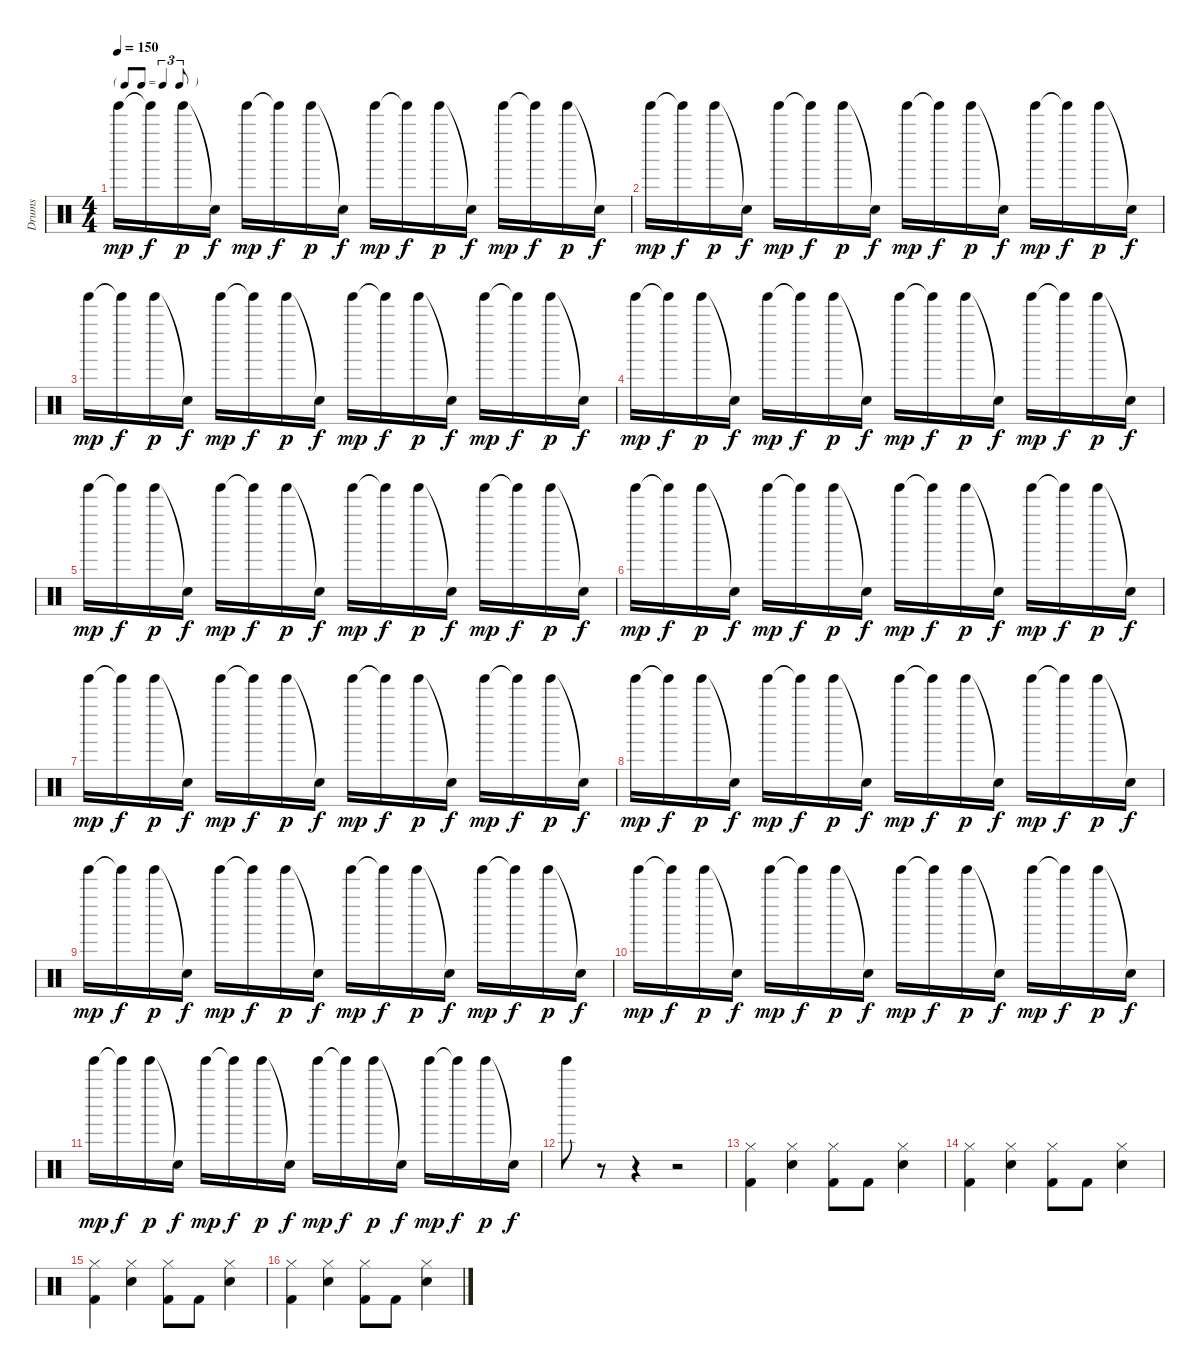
\track ("Drums" "Drums") {instrument percussion}
\staff {score}
\articulation defaults
\ts (4 4)
\tf triplet8th
\tempo 150
\clef neutral
\ks c "Tinkle Bell (hit)".16{dy mp} "Tinkle Bell (hit)"{t}.16{dy f} "Tinkle Bell (hit)".16{dy p} "Snare (hit)"{t}.16{dy f} "Tinkle Bell (hit)".16{dy mp} "Tinkle Bell (hit)"{t}.16{dy f} "Tinkle Bell (hit)".16{dy p} "Snare (hit)"{t}.16{dy f} "Tinkle Bell (hit)".16{dy mp} "Tinkle Bell (hit)"{t}.16{dy f} "Tinkle Bell (hit)".16{dy p} "Snare (hit)"{t}.16{dy f} "Tinkle Bell (hit)".16{dy mp} "Tinkle Bell (hit)"{t}.16{dy f} "Tinkle Bell (hit)".16{dy p} "Snare (hit)"{t}.16{dy f}
|
"Tinkle Bell (hit)".16{dy mp} "Tinkle Bell (hit)"{t}.16{dy f} "Tinkle Bell (hit)".16{dy p} "Snare (hit)"{t}.16{dy f} "Tinkle Bell (hit)".16{dy mp} "Tinkle Bell (hit)"{t}.16{dy f} "Tinkle Bell (hit)".16{dy p} "Snare (hit)"{t}.16{dy f} "Tinkle Bell (hit)".16{dy mp} "Tinkle Bell (hit)"{t}.16{dy f} "Tinkle Bell (hit)".16{dy p} "Snare (hit)"{t}.16{dy f} "Tinkle Bell (hit)".16{dy mp} "Tinkle Bell (hit)"{t}.16{dy f} "Tinkle Bell (hit)".16{dy p} "Snare (hit)"{t}.16{dy f} |
"Tinkle Bell (hit)".16{dy mp} "Tinkle Bell (hit)"{t}.16{dy f} "Tinkle Bell (hit)".16{dy p} "Snare (hit)"{t}.16{dy f} "Tinkle Bell (hit)".16{dy mp} "Tinkle Bell (hit)"{t}.16{dy f} "Tinkle Bell (hit)".16{dy p} "Snare (hit)"{t}.16{dy f} "Tinkle Bell (hit)".16{dy mp} "Tinkle Bell (hit)"{t}.16{dy f} "Tinkle Bell (hit)".16{dy p} "Snare (hit)"{t}.16{dy f} "Tinkle Bell (hit)".16{dy mp} "Tinkle Bell (hit)"{t}.16{dy f} "Tinkle Bell (hit)".16{dy p} "Snare (hit)"{t}.16{dy f} |
"Tinkle Bell (hit)".16{dy mp} "Tinkle Bell (hit)"{t}.16{dy f} "Tinkle Bell (hit)".16{dy p} "Snare (hit)"{t}.16{dy f} "Tinkle Bell (hit)".16{dy mp} "Tinkle Bell (hit)"{t}.16{dy f} "Tinkle Bell (hit)".16{dy p} "Snare (hit)"{t}.16{dy f} "Tinkle Bell (hit)".16{dy mp} "Tinkle Bell (hit)"{t}.16{dy f} "Tinkle Bell (hit)".16{dy p} "Snare (hit)"{t}.16{dy f} "Tinkle Bell (hit)".16{dy mp} "Tinkle Bell (hit)"{t}.16{dy f} "Tinkle Bell (hit)".16{dy p} "Snare (hit)"{t}.16{dy f} |
"Tinkle Bell (hit)".16{dy mp} "Tinkle Bell (hit)"{t}.16{dy f} "Tinkle Bell (hit)".16{dy p} "Snare (hit)"{t}.16{dy f} "Tinkle Bell (hit)".16{dy mp} "Tinkle Bell (hit)"{t}.16{dy f} "Tinkle Bell (hit)".16{dy p} "Snare (hit)"{t}.16{dy f} "Tinkle Bell (hit)".16{dy mp} "Tinkle Bell (hit)"{t}.16{dy f} "Tinkle Bell (hit)".16{dy p} "Snare (hit)"{t}.16{dy f} "Tinkle Bell (hit)".16{dy mp} "Tinkle Bell (hit)"{t}.16{dy f} "Tinkle Bell (hit)".16{dy p} "Snare (hit)"{t}.16{dy f} |
"Tinkle Bell (hit)".16{dy mp} "Tinkle Bell (hit)"{t}.16{dy f} "Tinkle Bell (hit)".16{dy p} "Snare (hit)"{t}.16{dy f} "Tinkle Bell (hit)".16{dy mp} "Tinkle Bell (hit)"{t}.16{dy f} "Tinkle Bell (hit)".16{dy p} "Snare (hit)"{t}.16{dy f} "Tinkle Bell (hit)".16{dy mp} "Tinkle Bell (hit)"{t}.16{dy f} "Tinkle Bell (hit)".16{dy p} "Snare (hit)"{t}.16{dy f} "Tinkle Bell (hit)".16{dy mp} "Tinkle Bell (hit)"{t}.16{dy f} "Tinkle Bell (hit)".16{dy p} "Snare (hit)"{t}.16{dy f} |
"Tinkle Bell (hit)".16{dy mp} "Tinkle Bell (hit)"{t}.16{dy f} "Tinkle Bell (hit)".16{dy p} "Snare (hit)"{t}.16{dy f} "Tinkle Bell (hit)".16{dy mp} "Tinkle Bell (hit)"{t}.16{dy f} "Tinkle Bell (hit)".16{dy p} "Snare (hit)"{t}.16{dy f} "Tinkle Bell (hit)".16{dy mp} "Tinkle Bell (hit)"{t}.16{dy f} "Tinkle Bell (hit)".16{dy p} "Snare (hit)"{t}.16{dy f} "Tinkle Bell (hit)".16{dy mp} "Tinkle Bell (hit)"{t}.16{dy f} "Tinkle Bell (hit)".16{dy p} "Snare (hit)"{t}.16{dy f} |
"Tinkle Bell (hit)".16{dy mp} "Tinkle Bell (hit)"{t}.16{dy f} "Tinkle Bell (hit)".16{dy p} "Snare (hit)"{t}.16{dy f} "Tinkle Bell (hit)".16{dy mp} "Tinkle Bell (hit)"{t}.16{dy f} "Tinkle Bell (hit)".16{dy p} "Snare (hit)"{t}.16{dy f} "Tinkle Bell (hit)".16{dy mp} "Tinkle Bell (hit)"{t}.16{dy f} "Tinkle Bell (hit)".16{dy p} "Snare (hit)"{t}.16{dy f} "Tinkle Bell (hit)".16{dy mp} "Tinkle Bell (hit)"{t}.16{dy f} "Tinkle Bell (hit)".16{dy p} "Snare (hit)"{t}.16{dy f} |
"Tinkle Bell (hit)".16{dy mp} "Tinkle Bell (hit)"{t}.16{dy f} "Tinkle Bell (hit)".16{dy p} "Snare (hit)"{t}.16{dy f} "Tinkle Bell (hit)".16{dy mp} "Tinkle Bell (hit)"{t}.16{dy f} "Tinkle Bell (hit)".16{dy p} "Snare (hit)"{t}.16{dy f} "Tinkle Bell (hit)".16{dy mp} "Tinkle Bell (hit)"{t}.16{dy f} "Tinkle Bell (hit)".16{dy p} "Snare (hit)"{t}.16{dy f} "Tinkle Bell (hit)".16{dy mp} "Tinkle Bell (hit)"{t}.16{dy f} "Tinkle Bell (hit)".16{dy p} "Snare (hit)"{t}.16{dy f} |
"Tinkle Bell (hit)".16{dy mp} "Tinkle Bell (hit)"{t}.16{dy f} "Tinkle Bell (hit)".16{dy p} "Snare (hit)"{t}.16{dy f} "Tinkle Bell (hit)".16{dy mp} "Tinkle Bell (hit)"{t}.16{dy f} "Tinkle Bell (hit)".16{dy p} "Snare (hit)"{t}.16{dy f} "Tinkle Bell (hit)".16{dy mp} "Tinkle Bell (hit)"{t}.16{dy f} "Tinkle Bell (hit)".16{dy p} "Snare (hit)"{t}.16{dy f} "Tinkle Bell (hit)".16{dy mp} "Tinkle Bell (hit)"{t}.16{dy f} "Tinkle Bell (hit)".16{dy p} "Snare (hit)"{t}.16{dy f} |
"Tinkle Bell (hit)".16{dy mp} "Tinkle Bell (hit)"{t}.16{dy f} "Tinkle Bell (hit)".16{dy p} "Snare (hit)"{t}.16{dy f} "Tinkle Bell (hit)".16{dy mp} "Tinkle Bell (hit)"{t}.16{dy f} "Tinkle Bell (hit)".16{dy p} "Snare (hit)"{t}.16{dy f} "Tinkle Bell (hit)".16{dy mp} "Tinkle Bell (hit)"{t}.16{dy f} "Tinkle Bell (hit)".16{dy p} "Snare (hit)"{t}.16{dy f} "Tinkle Bell (hit)".16{dy mp} "Tinkle Bell (hit)"{t}.16{dy f} "Tinkle Bell (hit)".16{dy p} "Snare (hit)"{t}.16{dy f} |
"Tinkle Bell (hit)".8 r.8 r.4 r.2 |
("Hi-Hat (closed)" "Kick (hit) 2").4 ("Hi-Hat (closed)" "Snare (hit) 2").4 ("Hi-Hat (closed)" "Kick (hit) 2").8 "Kick (hit) 2".8 ("Hi-Hat (closed)" "Snare (hit) 2").4 |
("Hi-Hat (closed)" "Kick (hit) 2").4 ("Hi-Hat (closed)" "Snare (hit) 2").4 ("Hi-Hat (closed)" "Kick (hit) 2").8 "Kick (hit) 2".8 ("Hi-Hat (closed)" "Snare (hit) 2").4 |
("Hi-Hat (closed)" "Kick (hit) 2").4 ("Hi-Hat (closed)" "Snare (hit) 2").4 ("Hi-Hat (closed)" "Kick (hit) 2").8 "Kick (hit) 2".8 ("Hi-Hat (closed)" "Snare (hit) 2").4 |
("Hi-Hat (closed)" "Kick (hit) 2").4 ("Hi-Hat (closed)" "Snare (hit) 2").4 ("Hi-Hat (closed)" "Kick (hit) 2").8 "Kick (hit) 2".8 ("Hi-Hat (closed)" "Snare (hit) 2").4
